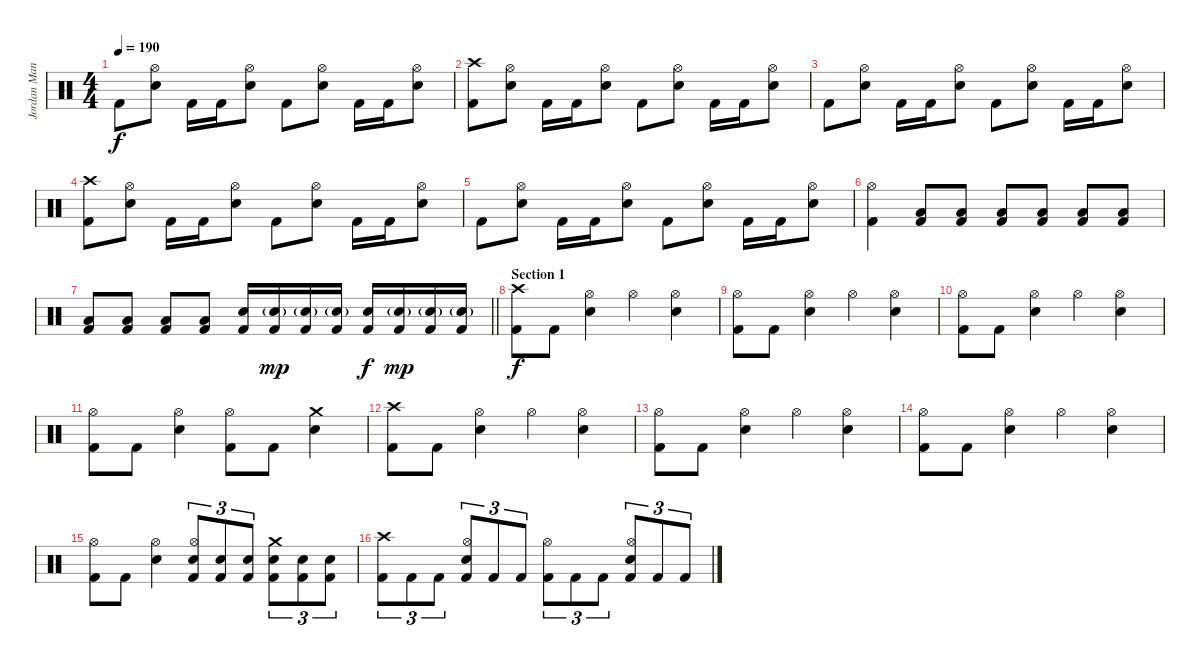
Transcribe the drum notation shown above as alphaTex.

\track ("Jordan Mancino" "Jordan Man") {instrument percussion}
\staff {score}
\articulation defaults
\ts (4 4)
\tempo 190
\clef neutral
\ks c "Kick (hit) 2".8{dy f}
("Hi-Hat (open)" "Electric Snare (hit)").8 "Kick (hit) 2".16 "Kick (hit) 2".16 ("Hi-Hat (open)" "Electric Snare (hit)").8 "Kick (hit) 2".8 ("Hi-Hat (open)" "Electric Snare (hit)").8 "Kick (hit) 2".16 "Kick (hit) 2".16 ("Hi-Hat (open)" "Electric Snare (hit)").8 |
("Crash high (hit)" "Kick (hit) 2").8 ("Hi-Hat (open)" "Electric Snare (hit)").8 "Kick (hit) 2".16 "Kick (hit) 2".16 ("Hi-Hat (open)" "Electric Snare (hit)").8 "Kick (hit) 2".8 ("Hi-Hat (open)" "Electric Snare (hit)").8 "Kick (hit) 2".16 "Kick (hit) 2".16 ("Hi-Hat (open)" "Electric Snare (hit)").8 |
"Kick (hit) 2".8 ("Hi-Hat (open)" "Electric Snare (hit)").8 "Kick (hit) 2".16 "Kick (hit) 2".16 ("Hi-Hat (open)" "Electric Snare (hit)").8 "Kick (hit) 2".8 ("Hi-Hat (open)" "Electric Snare (hit)").8 "Kick (hit) 2".16 "Kick (hit) 2".16 ("Hi-Hat (open)" "Electric Snare (hit)").8 |
("Crash high (hit)" "Kick (hit) 2").8 ("Hi-Hat (open)" "Electric Snare (hit)").8 "Kick (hit) 2".16 "Kick (hit) 2".16 ("Hi-Hat (open)" "Electric Snare (hit)").8 "Kick (hit) 2".8 ("Hi-Hat (open)" "Electric Snare (hit)").8 "Kick (hit) 2".16 "Kick (hit) 2".16 ("Hi-Hat (open)" "Electric Snare (hit)").8 |
"Kick (hit) 2".8 ("Hi-Hat (open)" "Electric Snare (hit)").8 "Kick (hit) 2".16 "Kick (hit) 2".16 ("Hi-Hat (open)" "Electric Snare (hit)").8 "Kick (hit) 2".8 ("Hi-Hat (open)" "Electric Snare (hit)").8 "Kick (hit) 2".16 "Kick (hit) 2".16 ("Hi-Hat (open)" "Electric Snare (hit)").8 |
("Hi-Hat (open)" "Kick (hit) 2").4 ("Low Floor Tom (hit)" "Kick (hit) 2").8 ("Low Floor Tom (hit)" "Kick (hit) 2").8 ("Low Floor Tom (hit)" "Kick (hit) 2").8 ("Low Floor Tom (hit)" "Kick (hit) 2").8 ("Low Floor Tom (hit)" "Kick (hit) 2").8 ("Low Floor Tom (hit)" "Kick (hit) 2").8 |
\barLineRight lightlight
("Low Floor Tom (hit)" "Kick (hit) 2").8 ("Low Floor Tom (hit)" "Kick (hit) 2").8 ("Low Floor Tom (hit)" "Kick (hit) 2").8 ("Low Floor Tom (hit)" "Kick (hit) 2").8 ("Electric Snare (hit)" "Kick (hit) 2").16 ("Electric Snare (hit)"{g} "Kick (hit) 2").16{dy mp} ("Electric Snare (hit)"{g} "Kick (hit) 2").16 ("Electric Snare (hit)"{g} "Kick (hit) 2").16 ("Electric Snare (hit)" "Kick (hit) 2").16{dy f} ("Electric Snare (hit)"{g} "Kick (hit) 2").16{dy mp} ("Electric Snare (hit)"{g} "Kick (hit) 2").16 ("Electric Snare (hit)"{g} "Kick (hit) 2").16 |
\section ("" "Section 1")
("Crash high (hit)" "Kick (hit) 2").8{dy f} "Kick (hit) 2".8 ("Hi-Hat (open)" "Electric Snare (hit)").4 "Hi-Hat (open)".4 ("Hi-Hat (open)" "Electric Snare (hit)").4 |
("Hi-Hat (open)" "Kick (hit) 2").8 "Kick (hit) 2".8 ("Hi-Hat (open)" "Electric Snare (hit)").4 "Hi-Hat (open)".4 ("Hi-Hat (open)" "Electric Snare (hit)").4 |
("Hi-Hat (open)" "Kick (hit) 2").8 "Kick (hit) 2".8 ("Hi-Hat (open)" "Electric Snare (hit)").4 "Hi-Hat (open)".4 ("Hi-Hat (open)" "Electric Snare (hit)").4 |
("Hi-Hat (open)" "Kick (hit) 2").8 "Kick (hit) 2".8 ("Hi-Hat (open)" "Electric Snare (hit)").4 ("Hi-Hat (open)" "Kick (hit) 2").8 "Kick (hit) 2".8 ("Crash medium (hit)" "Electric Snare (hit)").4 |
("Crash high (hit)" "Kick (hit) 2").8 "Kick (hit) 2".8 ("Hi-Hat (open)" "Electric Snare (hit)").4 "Hi-Hat (open)".4 ("Hi-Hat (open)" "Electric Snare (hit)").4 |
("Hi-Hat (open)" "Kick (hit) 2").8 "Kick (hit) 2".8 ("Hi-Hat (open)" "Electric Snare (hit)").4 "Hi-Hat (open)".4 ("Hi-Hat (open)" "Electric Snare (hit)").4 |
("Hi-Hat (open)" "Kick (hit) 2").8 "Kick (hit) 2".8 ("Hi-Hat (open)" "Electric Snare (hit)").4 "Hi-Hat (open)".4 ("Hi-Hat (open)" "Electric Snare (hit)").4 |
("Hi-Hat (open)" "Kick (hit) 2").8 "Kick (hit) 2".8 ("Hi-Hat (open)" "Electric Snare (hit)").4 ("Hi-Hat (open)" "Electric Snare (hit)" "Kick (hit) 2").8{tu (3 2)} ("Electric Snare (hit)" "Kick (hit) 2").8{tu (3 2)} ("Electric Snare (hit)" "Kick (hit) 2").8{tu (3 2)} ("Crash medium (hit)" "Electric Snare (hit)" "Kick (hit) 2").8{tu (3 2)} ("Electric Snare (hit)" "Kick (hit) 2").8{tu (3 2)} ("Electric Snare (hit)" "Kick (hit) 2").8{tu (3 2)} |
("Crash high (hit)" "Kick (hit) 2").8{tu (3 2)} "Kick (hit) 2".8{tu (3 2)} "Kick (hit) 2".8{tu (3 2)} ("Hi-Hat (open)" "Electric Snare (hit)" "Kick (hit) 2").8{tu (3 2)} "Kick (hit) 2".8{tu (3 2)} "Kick (hit) 2".8{tu (3 2)} ("Hi-Hat (open)" "Kick (hit) 2").8{tu (3 2)} "Kick (hit) 2".8{tu (3 2)} "Kick (hit) 2".8{tu (3 2)} ("Hi-Hat (open)" "Electric Snare (hit)" "Kick (hit) 2").8{tu (3 2)} "Kick (hit) 2".8{tu (3 2)} "Kick (hit) 2".8{tu (3 2)}
